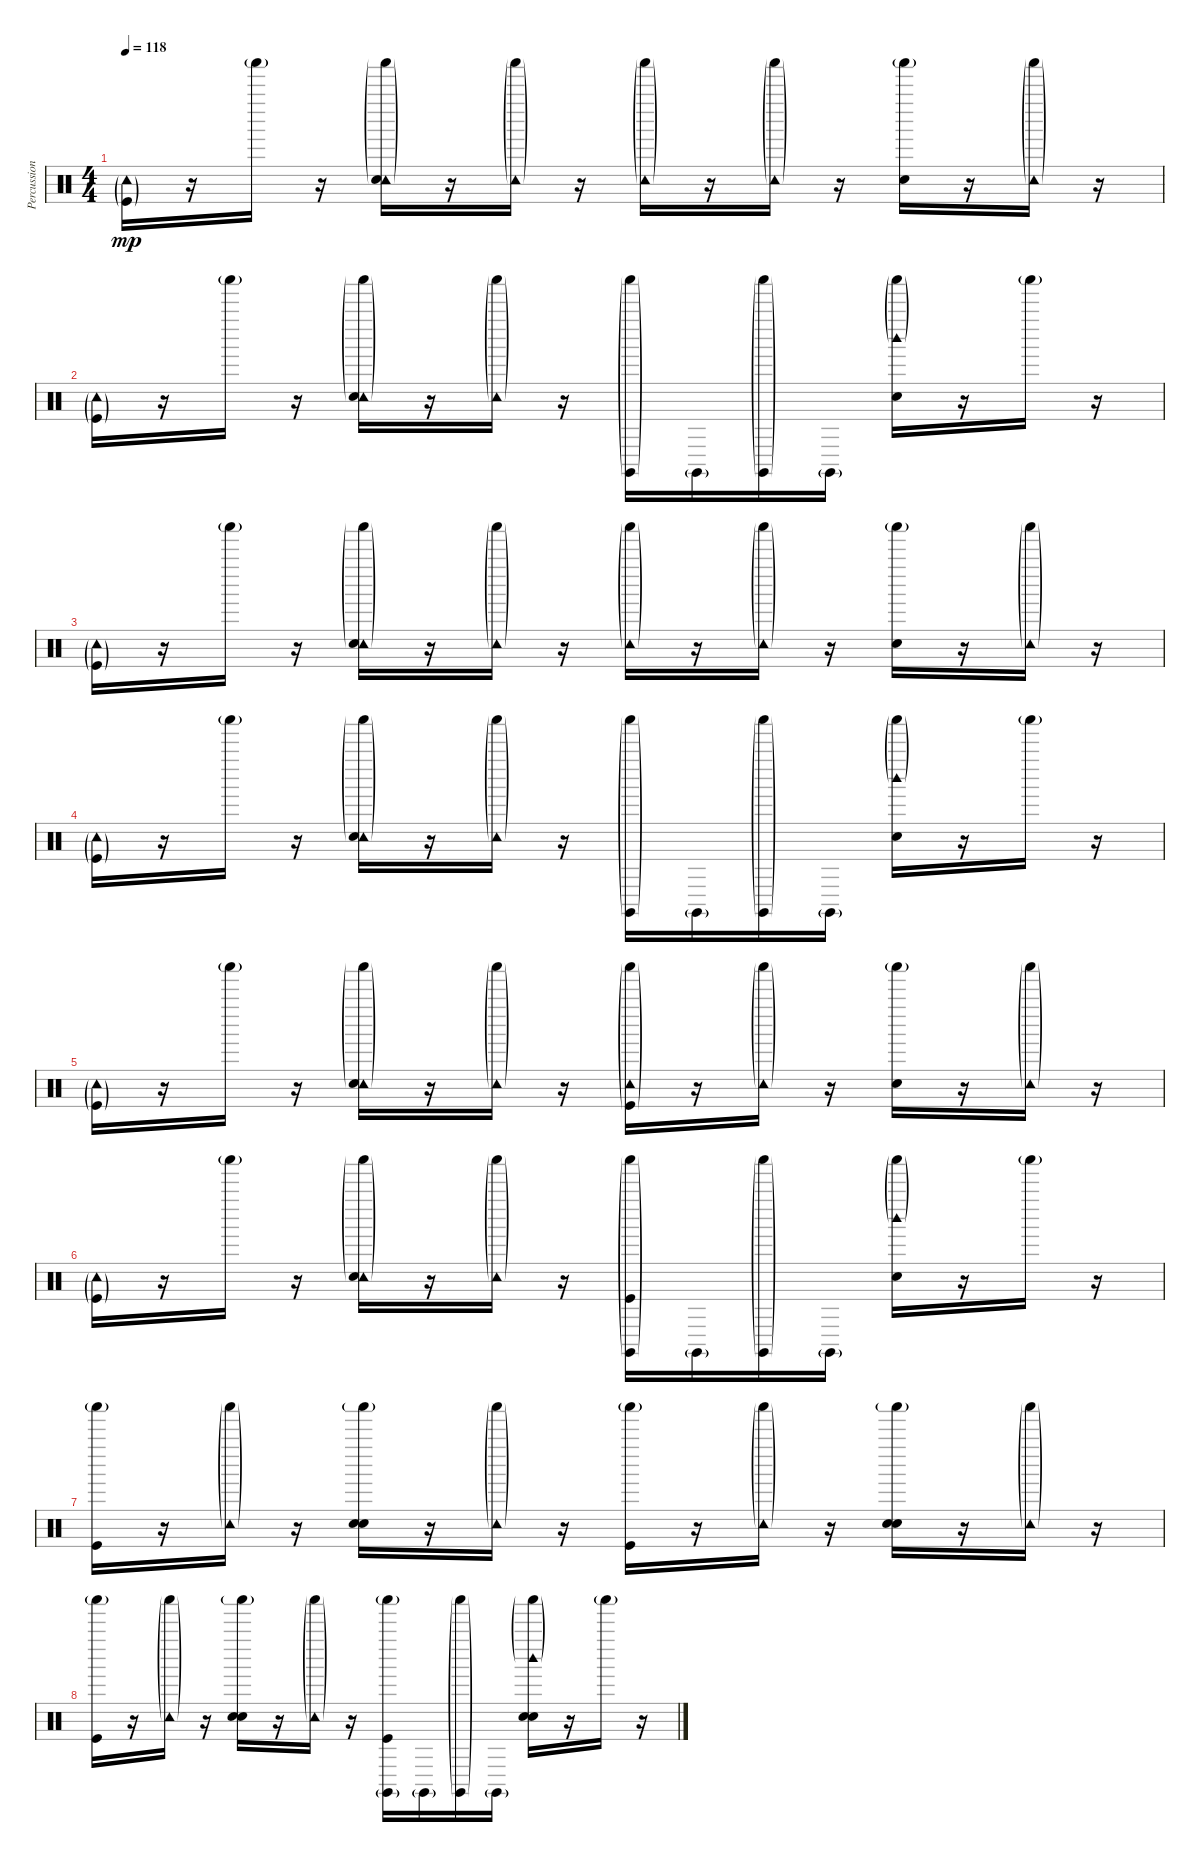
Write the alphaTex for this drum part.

\track ("Percussion" "Percussion") {instrument percussion}
\staff {score}
\articulation defaults
\ts (4 4)
\tempo 118
\clef neutral
\ks c
("Tambourine (hit)"{g} "Kick (hit)"{g}).16{dy mp} r.16 "Shaker (hit)"{g}.16 r.16 ("Shaker (hit)"{g} "Tambourine (hit)"{g} "Hand Clap (hit)").16 r.16 ("Shaker (hit)"{g} "Tambourine (hit)"{g}).16 r.16 ("Shaker (hit)"{g} "Tambourine (hit)"{g}).16 r.16 ("Shaker (hit)"{g} "Tambourine (hit)"{g}).16 r.16 ("Shaker (hit)"{g} "Hand Clap (hit)").16 r.16 ("Shaker (hit)"{g} "Tambourine (hit)"{g}).16 r.16 |
("Tambourine (hit)"{g} "Kick (hit)"{g}).16 r.16 "Shaker (hit)"{g}.16 r.16 ("Shaker (hit)"{g} "Tambourine (hit)"{g} "Hand Clap (hit)").16 r.16 ("Shaker (hit)"{g} "Tambourine (hit)"{g}).16 r.16 ("Shaker (hit)"{g} "Claves (hit)"{g}).16 "Claves (hit)"{g}.16 ("Shaker (hit)"{g} "Claves (hit)"{g}).16 "Claves (hit)"{g}.16 ("Shaker (hit)"{g} "Woodblock high (hit)"{g} "Hand Clap (hit)").16 r.16 "Shaker (hit)"{g}.16 r.16 |
("Tambourine (hit)"{g} "Kick (hit)"{g}).16 r.16 "Shaker (hit)"{g}.16 r.16 ("Shaker (hit)"{g} "Tambourine (hit)"{g} "Hand Clap (hit)").16 r.16 ("Shaker (hit)"{g} "Tambourine (hit)"{g}).16 r.16 ("Shaker (hit)"{g} "Tambourine (hit)"{g}).16 r.16 ("Shaker (hit)"{g} "Tambourine (hit)"{g}).16 r.16 ("Shaker (hit)"{g} "Hand Clap (hit)").16 r.16 ("Shaker (hit)"{g} "Tambourine (hit)"{g}).16 r.16 |
("Tambourine (hit)"{g} "Kick (hit)"{g}).16 r.16 "Shaker (hit)"{g}.16 r.16 ("Shaker (hit)"{g} "Tambourine (hit)"{g} "Hand Clap (hit)").16 r.16 ("Shaker (hit)"{g} "Tambourine (hit)"{g}).16 r.16 ("Shaker (hit)"{g} "Claves (hit)"{g}).16 "Claves (hit)"{g}.16 ("Shaker (hit)"{g} "Claves (hit)"{g}).16 "Claves (hit)"{g}.16 ("Shaker (hit)"{g} "Woodblock high (hit)"{g} "Hand Clap (hit)").16 r.16 "Shaker (hit)"{g}.16 r.16 |
("Tambourine (hit)"{g} "Kick (hit)"{g}).16 r.16 "Shaker (hit)"{g}.16 r.16 ("Shaker (hit)"{g} "Tambourine (hit)"{g} "Hand Clap (hit)").16 r.16 ("Shaker (hit)"{g} "Tambourine (hit)"{g}).16 r.16 ("Shaker (hit)"{g} "Tambourine (hit)"{g} "Kick (hit)"{g}).16 r.16 ("Shaker (hit)"{g} "Tambourine (hit)"{g}).16 r.16 ("Shaker (hit)"{g} "Hand Clap (hit)").16 r.16 ("Shaker (hit)"{g} "Tambourine (hit)"{g}).16 r.16 |
("Tambourine (hit)"{g} "Kick (hit)"{g}).16 r.16 "Shaker (hit)"{g}.16 r.16 ("Shaker (hit)"{g} "Tambourine (hit)"{g} "Hand Clap (hit)").16 r.16 ("Shaker (hit)"{g} "Tambourine (hit)"{g}).16 r.16 ("Shaker (hit)"{g} "Claves (hit)"{g} "Kick (hit)"{g}).16 "Claves (hit)"{g}.16 ("Shaker (hit)"{g} "Claves (hit)"{g}).16 "Claves (hit)"{g}.16 ("Shaker (hit)"{g} "Woodblock high (hit)"{g} "Hand Clap (hit)").16 r.16 "Shaker (hit)"{g}.16 r.16 |
("Shaker (hit)"{g} "Kick (hit)").16 r.16 ("Shaker (hit)"{g} "Tambourine (hit)"{g}).16 r.16 ("Shaker (hit)"{g} "Hand Clap (hit)" "Snare (hit) 2").16 r.16 ("Shaker (hit)"{g} "Tambourine (hit)"{g}).16 r.16 ("Shaker (hit)"{g} "Kick (hit)").16 r.16 ("Shaker (hit)"{g} "Tambourine (hit)"{g}).16 r.16 ("Shaker (hit)"{g} "Hand Clap (hit)" "Snare (hit) 2").16 r.16 ("Shaker (hit)"{g} "Tambourine (hit)"{g}).16 r.16 |
("Shaker (hit)"{g} "Kick (hit)").16 r.16 ("Shaker (hit)"{g} "Tambourine (hit)"{g}).16 r.16 ("Shaker (hit)"{g} "Hand Clap (hit)" "Snare (hit) 2").16 r.16 ("Shaker (hit)"{g} "Tambourine (hit)"{g}).16 r.16 ("Shaker (hit)"{g} "Claves (hit)"{g} "Kick (hit)").16 "Claves (hit)"{g}.16 ("Shaker (hit)"{g} "Claves (hit)"{g}).16 "Claves (hit)"{g}.16 ("Shaker (hit)"{g} "Woodblock high (hit)"{g} "Hand Clap (hit)" "Snare (hit) 2").16 r.16 "Shaker (hit)"{g}.16 r.16
